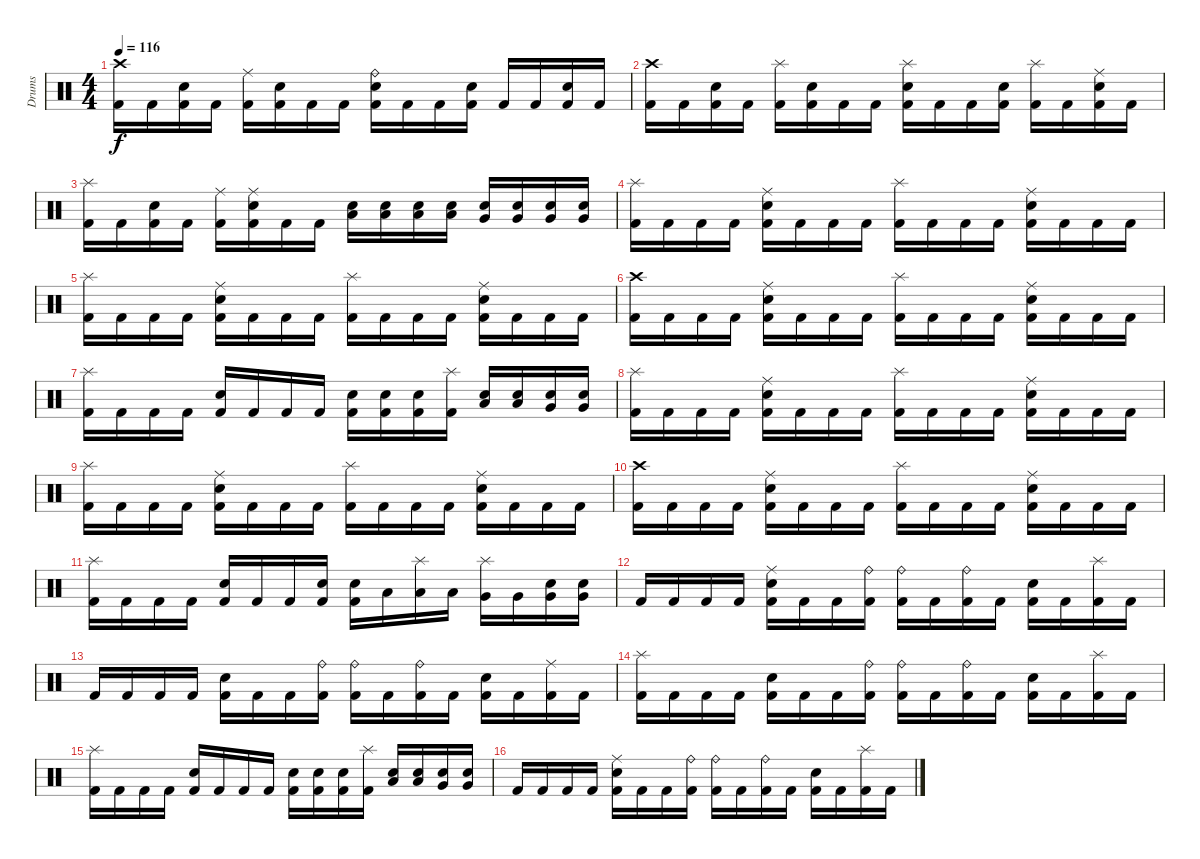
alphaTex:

\track ("Drums" "Drums") {instrument percussion}
\staff {score}
\articulation defaults
\ts (4 4)
\tempo 116
\clef neutral
\ks c
("Crash high (hit)" "Kick (hit) 2").16{dy f} "Kick (hit) 2".16 ("Snare (hit) 2" "Kick (hit) 2").16 "Kick (hit) 2".16 ("Ride (middle)" "Kick (hit) 2").16 ("Snare (hit) 2" "Kick (hit) 2").16 "Kick (hit) 2".16 "Kick (hit) 2".16 ("Ride (bell)" "Snare (hit) 2" "Kick (hit) 2").16 "Kick (hit) 2".16 "Kick (hit) 2".16 ("Snare (hit) 2" "Kick (hit) 2").16 "Kick (hit) 2".16 "Kick (hit) 2".16 ("Snare (hit) 2" "Kick (hit) 2").16 "Kick (hit) 2".16 |
("Crash high (hit)" "Kick (hit) 2").16 "Kick (hit) 2".16 ("Snare (hit) 2" "Kick (hit) 2").16 "Kick (hit) 2".16 ("Splash (hit)" "Kick (hit) 2").16 ("Snare (hit) 2" "Kick (hit) 2").16 "Kick (hit) 2".16 "Kick (hit) 2".16 ("Splash (hit)" "Snare (hit) 2" "Kick (hit) 2").16 "Kick (hit) 2".16 "Kick (hit) 2".16 ("Snare (hit) 2" "Kick (hit) 2").16 ("Splash (hit)" "Kick (hit) 2").16 "Kick (hit) 2".16 ("Ride (middle)" "Snare (hit) 2" "Kick (hit) 2").16 "Kick (hit) 2".16 |
("Splash (hit)" "Kick (hit) 2").16 "Kick (hit) 2".16 ("Snare (hit) 2" "Kick (hit) 2").16 "Kick (hit) 2".16 ("Ride (middle)" "Kick (hit) 2").16 ("Ride (middle)" "Snare (hit) 2" "Kick (hit) 2").16 "Kick (hit) 2".16 "Kick (hit) 2".16 ("Low Tom (hit)" "Snare (hit) 2").16 ("Low Tom (hit)" "Snare (hit) 2").16 ("Low Tom (hit)" "Snare (hit) 2").16 ("Low Tom (hit)" "Snare (hit) 2").16 ("Very Low Tom (hit)" "Snare (hit) 2").16 ("Very Low Tom (hit)" "Snare (hit) 2").16 ("Very Low Tom (hit)" "Snare (hit) 2").16 ("Very Low Tom (hit)" "Snare (hit) 2").16 |
("Splash (hit)" "Kick (hit) 2").16 "Kick (hit) 2".16 "Kick (hit) 2".16 "Kick (hit) 2".16 ("Ride (middle)" "Snare (hit) 2" "Kick (hit) 2").16 "Kick (hit) 2".16 "Kick (hit) 2".16 "Kick (hit) 2".16 ("Splash (hit)" "Kick (hit) 2").16 "Kick (hit) 2".16 "Kick (hit) 2".16 "Kick (hit) 2".16 ("Ride (middle)" "Snare (hit) 2" "Kick (hit) 2").16 "Kick (hit) 2".16 "Kick (hit) 2".16 "Kick (hit) 2".16 |
("Splash (hit)" "Kick (hit) 2").16 "Kick (hit) 2".16 "Kick (hit) 2".16 "Kick (hit) 2".16 ("Ride (middle)" "Snare (hit) 2" "Kick (hit) 2").16 "Kick (hit) 2".16 "Kick (hit) 2".16 "Kick (hit) 2".16 ("Splash (hit)" "Kick (hit) 2").16 "Kick (hit) 2".16 "Kick (hit) 2".16 "Kick (hit) 2".16 ("Ride (middle)" "Snare (hit) 2" "Kick (hit) 2").16 "Kick (hit) 2".16 "Kick (hit) 2".16 "Kick (hit) 2".16 |
("Crash high (hit)" "Kick (hit) 2").16 "Kick (hit) 2".16 "Kick (hit) 2".16 "Kick (hit) 2".16 ("Ride (middle)" "Snare (hit) 2" "Kick (hit) 2").16 "Kick (hit) 2".16 "Kick (hit) 2".16 "Kick (hit) 2".16 ("Splash (hit)" "Kick (hit) 2").16 "Kick (hit) 2".16 "Kick (hit) 2".16 "Kick (hit) 2".16 ("Ride (middle)" "Snare (hit) 2" "Kick (hit) 2").16 "Kick (hit) 2".16 "Kick (hit) 2".16 "Kick (hit) 2".16 |
("Splash (hit)" "Kick (hit) 2").16 "Kick (hit) 2".16 "Kick (hit) 2".16 "Kick (hit) 2".16 ("Snare (hit) 2" "Kick (hit) 2").16 "Kick (hit) 2".16 "Kick (hit) 2".16 "Kick (hit) 2".16 ("Snare (hit) 2" "Kick (hit) 2").16 ("Snare (hit) 2" "Kick (hit) 2").16 ("Snare (hit) 2" "Kick (hit) 2").16 ("Splash (hit)" "Kick (hit) 2").16 ("Snare (hit) 2" "Low Tom (hit)").16 ("Snare (hit) 2" "Low Tom (hit)").16 ("Snare (hit) 2" "Very Low Tom (hit)").16 ("Snare (hit) 2" "Very Low Tom (hit)").16 |
("Splash (hit)" "Kick (hit) 2").16 "Kick (hit) 2".16 "Kick (hit) 2".16 "Kick (hit) 2".16 ("Ride (middle)" "Snare (hit) 2" "Kick (hit) 2").16 "Kick (hit) 2".16 "Kick (hit) 2".16 "Kick (hit) 2".16 ("Splash (hit)" "Kick (hit) 2").16 "Kick (hit) 2".16 "Kick (hit) 2".16 "Kick (hit) 2".16 ("Ride (middle)" "Snare (hit) 2" "Kick (hit) 2").16 "Kick (hit) 2".16 "Kick (hit) 2".16 "Kick (hit) 2".16 |
("Splash (hit)" "Kick (hit) 2").16 "Kick (hit) 2".16 "Kick (hit) 2".16 "Kick (hit) 2".16 ("Ride (middle)" "Snare (hit) 2" "Kick (hit) 2").16 "Kick (hit) 2".16 "Kick (hit) 2".16 "Kick (hit) 2".16 ("Splash (hit)" "Kick (hit) 2").16 "Kick (hit) 2".16 "Kick (hit) 2".16 "Kick (hit) 2".16 ("Ride (middle)" "Snare (hit) 2" "Kick (hit) 2").16 "Kick (hit) 2".16 "Kick (hit) 2".16 "Kick (hit) 2".16 |
("Crash high (hit)" "Kick (hit) 2").16 "Kick (hit) 2".16 "Kick (hit) 2".16 "Kick (hit) 2".16 ("Ride (middle)" "Snare (hit) 2" "Kick (hit) 2").16 "Kick (hit) 2".16 "Kick (hit) 2".16 "Kick (hit) 2".16 ("Splash (hit)" "Kick (hit) 2").16 "Kick (hit) 2".16 "Kick (hit) 2".16 "Kick (hit) 2".16 ("Ride (middle)" "Snare (hit) 2" "Kick (hit) 2").16 "Kick (hit) 2".16 "Kick (hit) 2".16 "Kick (hit) 2".16 |
("Splash (hit)" "Kick (hit) 2").16 "Kick (hit) 2".16 "Kick (hit) 2".16 "Kick (hit) 2".16 ("Snare (hit) 2" "Kick (hit) 2").16 "Kick (hit) 2".16 "Kick (hit) 2".16 ("Snare (hit) 2" "Kick (hit) 2").16 ("Snare (hit) 2" "Kick (hit) 2").16 "Low Floor Tom (hit)".16 ("Splash (hit)" "Low Floor Tom (hit)").16 "Low Floor Tom (hit)".16 ("Splash (hit)" "Very Low Tom (hit)").16 "Very Low Tom (hit)".16 ("Snare (hit) 2" "Very Low Tom (hit)").16 ("Snare (hit) 2" "Very Low Tom (hit)").16 |
"Kick (hit) 2".16 "Kick (hit) 2".16 "Kick (hit) 2".16 "Kick (hit) 2".16 ("Ride (middle)" "Snare (hit) 2" "Kick (hit) 2").16 "Kick (hit) 2".16 "Kick (hit) 2".16 ("Ride (bell)" "Kick (hit) 2").16 ("Ride (bell)" "Kick (hit) 2").16 "Kick (hit) 2".16 ("Ride (bell)" "Kick (hit) 2").16 "Kick (hit) 2".16 ("Snare (hit) 2" "Kick (hit) 2").16 "Kick (hit) 2".16 ("Splash (hit)" "Kick (hit) 2").16 "Kick (hit) 2".16 |
"Kick (hit) 2".16 "Kick (hit) 2".16 "Kick (hit) 2".16 "Kick (hit) 2".16 ("Snare (hit) 2" "Kick (hit) 2").16 "Kick (hit) 2".16 "Kick (hit) 2".16 ("Ride (bell)" "Kick (hit) 2").16 ("Ride (bell)" "Kick (hit) 2").16 "Kick (hit) 2".16 ("Ride (bell)" "Kick (hit) 2").16 "Kick (hit) 2".16 ("Snare (hit) 2" "Kick (hit) 2").16 "Kick (hit) 2".16 ("Ride (middle)" "Kick (hit) 2").16 "Kick (hit) 2".16 |
("Splash (hit)" "Kick (hit) 2").16 "Kick (hit) 2".16 "Kick (hit) 2".16 "Kick (hit) 2".16 ("Snare (hit) 2" "Kick (hit) 2").16 "Kick (hit) 2".16 "Kick (hit) 2".16 ("Ride (bell)" "Kick (hit) 2").16 ("Ride (bell)" "Kick (hit) 2").16 "Kick (hit) 2".16 ("Ride (bell)" "Kick (hit) 2").16 "Kick (hit) 2".16 ("Snare (hit) 2" "Kick (hit) 2").16 "Kick (hit) 2".16 ("Splash (hit)" "Kick (hit) 2").16 "Kick (hit) 2".16 |
("Splash (hit)" "Kick (hit) 2").16 "Kick (hit) 2".16 "Kick (hit) 2".16 "Kick (hit) 2".16 ("Snare (hit) 2" "Kick (hit) 2").16 "Kick (hit) 2".16 "Kick (hit) 2".16 "Kick (hit) 2".16 ("Snare (hit) 2" "Kick (hit) 2").16 ("Snare (hit) 2" "Kick (hit) 2").16 ("Snare (hit) 2" "Kick (hit) 2").16 ("Splash (hit)" "Kick (hit) 2").16 ("Snare (hit) 2" "Low Tom (hit)").16 ("Snare (hit) 2" "Low Tom (hit)").16 ("Snare (hit) 2" "Very Low Tom (hit)").16 ("Snare (hit) 2" "Very Low Tom (hit)").16 |
"Kick (hit) 2".16 "Kick (hit) 2".16 "Kick (hit) 2".16 "Kick (hit) 2".16 ("Ride (middle)" "Snare (hit) 2" "Kick (hit) 2").16 "Kick (hit) 2".16 "Kick (hit) 2".16 ("Ride (bell)" "Kick (hit) 2").16 ("Ride (bell)" "Kick (hit) 2").16 "Kick (hit) 2".16 ("Ride (bell)" "Kick (hit) 2").16 "Kick (hit) 2".16 ("Snare (hit) 2" "Kick (hit) 2").16 "Kick (hit) 2".16 ("Splash (hit)" "Kick (hit) 2").16 "Kick (hit) 2".16
